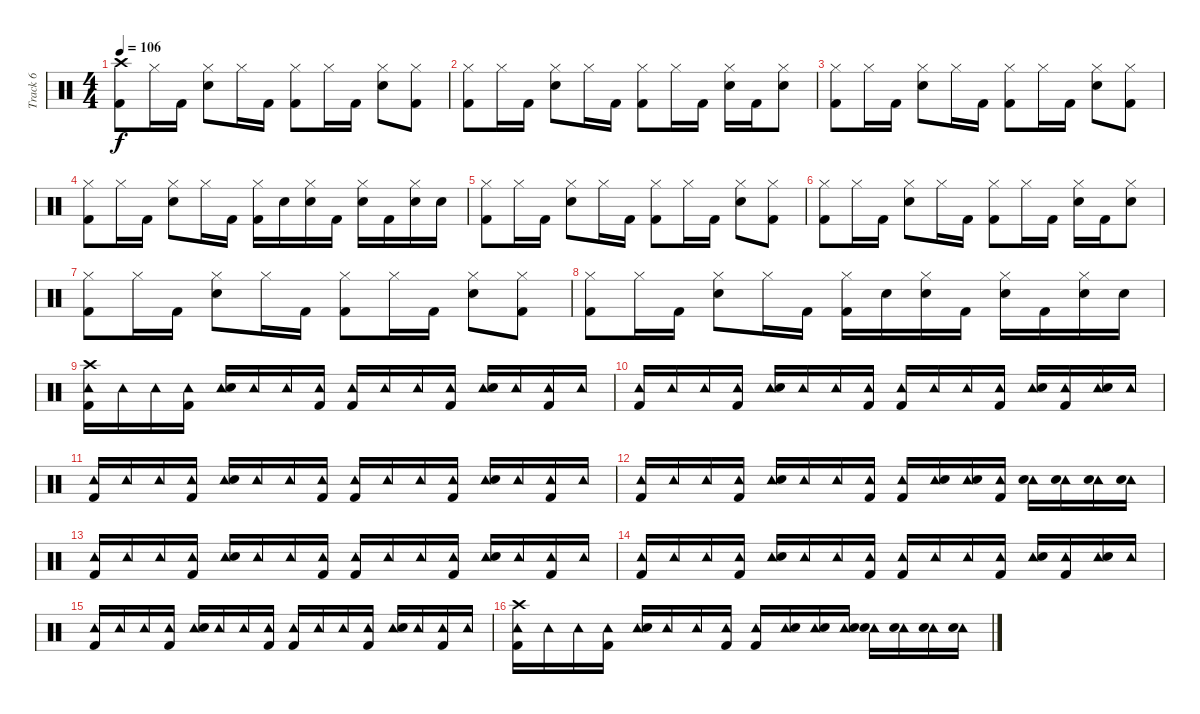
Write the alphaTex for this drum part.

\track ("Track 6" "Track 6") {instrument percussion}
\staff {score}
\articulation defaults
\ts (4 4)
\tempo 106
\clef neutral
\ks c
("Crash high (hit)" "Kick (hit) 2").8{dy f} "Hi-Hat (closed)".16 "Kick (hit) 2".16 ("Hi-Hat (closed)" "Snare (hit) 2").8 "Hi-Hat (closed)".16 "Kick (hit) 2".16 ("Hi-Hat (closed)" "Kick (hit) 2").8 "Hi-Hat (closed)".16 "Kick (hit) 2".16 ("Hi-Hat (closed)" "Snare (hit) 2").8 ("Hi-Hat (closed)" "Kick (hit) 2").8 |
("Hi-Hat (closed)" "Kick (hit) 2").8 "Hi-Hat (closed)".16 "Kick (hit) 2".16 ("Hi-Hat (closed)" "Snare (hit) 2").8 "Hi-Hat (closed)".16 "Kick (hit) 2".16 ("Hi-Hat (closed)" "Kick (hit) 2").8 "Hi-Hat (closed)".16 "Kick (hit) 2".16 ("Hi-Hat (closed)" "Snare (hit) 2").16 "Kick (hit) 2".16 ("Hi-Hat (closed)" "Snare (hit) 2").8 |
("Hi-Hat (closed)" "Kick (hit) 2").8 "Hi-Hat (closed)".16 "Kick (hit) 2".16 ("Hi-Hat (closed)" "Snare (hit) 2").8 "Hi-Hat (closed)".16 "Kick (hit) 2".16 ("Hi-Hat (closed)" "Kick (hit) 2").8 "Hi-Hat (closed)".16 "Kick (hit) 2".16 ("Hi-Hat (closed)" "Snare (hit) 2").8 ("Hi-Hat (closed)" "Kick (hit) 2").8 |
("Hi-Hat (closed)" "Kick (hit) 2").8 "Hi-Hat (closed)".16 "Kick (hit) 2".16 ("Hi-Hat (closed)" "Snare (hit) 2").8 "Hi-Hat (closed)".16 "Kick (hit) 2".16 ("Hi-Hat (closed)" "Kick (hit) 2").16 "Snare (hit) 2".16 ("Hi-Hat (closed)" "Snare (hit) 2").16 "Kick (hit) 2".16 ("Hi-Hat (closed)" "Snare (hit) 2").16 "Kick (hit) 2".16 ("Hi-Hat (closed)" "Snare (hit) 2").16 "Snare (hit) 2".16 |
("Hi-Hat (closed)" "Kick (hit) 2").8 "Hi-Hat (closed)".16 "Kick (hit) 2".16 ("Hi-Hat (closed)" "Snare (hit) 2").8 "Hi-Hat (closed)".16 "Kick (hit) 2".16 ("Hi-Hat (closed)" "Kick (hit) 2").8 "Hi-Hat (closed)".16 "Kick (hit) 2".16 ("Hi-Hat (closed)" "Snare (hit) 2").8 ("Hi-Hat (closed)" "Kick (hit) 2").8 |
("Hi-Hat (closed)" "Kick (hit) 2").8 "Hi-Hat (closed)".16 "Kick (hit) 2".16 ("Hi-Hat (closed)" "Snare (hit) 2").8 "Hi-Hat (closed)".16 "Kick (hit) 2".16 ("Hi-Hat (closed)" "Kick (hit) 2").8 "Hi-Hat (closed)".16 "Kick (hit) 2".16 ("Hi-Hat (closed)" "Snare (hit) 2").16 "Kick (hit) 2".16 ("Hi-Hat (closed)" "Snare (hit) 2").8 |
("Hi-Hat (closed)" "Kick (hit) 2").8 "Hi-Hat (closed)".16 "Kick (hit) 2".16 ("Hi-Hat (closed)" "Snare (hit) 2").8 "Hi-Hat (closed)".16 "Kick (hit) 2".16 ("Hi-Hat (closed)" "Kick (hit) 2").8 "Hi-Hat (closed)".16 "Kick (hit) 2".16 ("Hi-Hat (closed)" "Snare (hit) 2").8 ("Hi-Hat (closed)" "Kick (hit) 2").8 |
("Hi-Hat (closed)" "Kick (hit) 2").8 "Hi-Hat (closed)".16 "Kick (hit) 2".16 ("Hi-Hat (closed)" "Snare (hit) 2").8 "Hi-Hat (closed)".16 "Kick (hit) 2".16 ("Hi-Hat (closed)" "Kick (hit) 2").16 "Snare (hit) 2".16 ("Hi-Hat (closed)" "Snare (hit) 2").16 "Kick (hit) 2".16 ("Hi-Hat (closed)" "Snare (hit) 2").16 "Kick (hit) 2".16 ("Hi-Hat (closed)" "Snare (hit) 2").16 "Snare (hit) 2".16 |
("Tambourine (hit)" "Crash high (hit)" "Kick (hit) 2").16 "Tambourine (hit)".16 "Tambourine (hit)".16 ("Tambourine (hit)" "Kick (hit) 2").16 ("Tambourine (hit)" "Snare (hit) 2").16 "Tambourine (hit)".16 "Tambourine (hit)".16 ("Tambourine (hit)" "Kick (hit) 2").16 ("Tambourine (hit)" "Kick (hit) 2").16 "Tambourine (hit)".16 "Tambourine (hit)".16 ("Tambourine (hit)" "Kick (hit) 2").16 ("Tambourine (hit)" "Snare (hit) 2").16 "Tambourine (hit)".16 ("Tambourine (hit)" "Kick (hit) 2").16 "Tambourine (hit)".16 |
("Tambourine (hit)" "Kick (hit) 2").16 "Tambourine (hit)".16 "Tambourine (hit)".16 ("Tambourine (hit)" "Kick (hit) 2").16 ("Tambourine (hit)" "Snare (hit) 2").16 "Tambourine (hit)".16 "Tambourine (hit)".16 ("Tambourine (hit)" "Kick (hit) 2").16 ("Tambourine (hit)" "Kick (hit) 2").16 "Tambourine (hit)".16 "Tambourine (hit)".16 ("Tambourine (hit)" "Kick (hit) 2").16 ("Tambourine (hit)" "Snare (hit) 2").16 ("Tambourine (hit)" "Kick (hit) 2").16 ("Tambourine (hit)" "Snare (hit) 2").16 "Tambourine (hit)".16 |
("Tambourine (hit)" "Kick (hit) 2").16 "Tambourine (hit)".16 "Tambourine (hit)".16 ("Tambourine (hit)" "Kick (hit) 2").16 ("Tambourine (hit)" "Snare (hit) 2").16 "Tambourine (hit)".16 "Tambourine (hit)".16 ("Tambourine (hit)" "Kick (hit) 2").16 ("Tambourine (hit)" "Kick (hit) 2").16 "Tambourine (hit)".16 "Tambourine (hit)".16 ("Tambourine (hit)" "Kick (hit) 2").16 ("Tambourine (hit)" "Snare (hit) 2").16 "Tambourine (hit)".16 ("Tambourine (hit)" "Kick (hit) 2").16 "Tambourine (hit)".16 |
("Tambourine (hit)" "Kick (hit) 2").16 "Tambourine (hit)".16 "Tambourine (hit)".16 ("Tambourine (hit)" "Kick (hit) 2").16 ("Tambourine (hit)" "Snare (hit) 2").16 "Tambourine (hit)".16 "Tambourine (hit)".16 ("Tambourine (hit)" "Kick (hit) 2").16 ("Tambourine (hit)" "Kick (hit) 2").16 ("Tambourine (hit)" "Snare (hit) 2").16 ("Tambourine (hit)" "Snare (hit) 2").16 ("Tambourine (hit)" "Kick (hit) 2").16 ("Tambourine (hit)" "Snare (hit) 2").16 ("Tambourine (hit)" "Snare (hit) 2").16 ("Tambourine (hit)" "Snare (hit) 2").16 ("Tambourine (hit)" "Snare (hit) 2").16 |
("Tambourine (hit)" "Kick (hit) 2").16 "Tambourine (hit)".16 "Tambourine (hit)".16 ("Tambourine (hit)" "Kick (hit) 2").16 ("Tambourine (hit)" "Snare (hit) 2").16 "Tambourine (hit)".16 "Tambourine (hit)".16 ("Tambourine (hit)" "Kick (hit) 2").16 ("Tambourine (hit)" "Kick (hit) 2").16 "Tambourine (hit)".16 "Tambourine (hit)".16 ("Tambourine (hit)" "Kick (hit) 2").16 ("Tambourine (hit)" "Snare (hit) 2").16 "Tambourine (hit)".16 ("Tambourine (hit)" "Kick (hit) 2").16 "Tambourine (hit)".16 |
("Tambourine (hit)" "Kick (hit) 2").16 "Tambourine (hit)".16 "Tambourine (hit)".16 ("Tambourine (hit)" "Kick (hit) 2").16 ("Tambourine (hit)" "Snare (hit) 2").16 "Tambourine (hit)".16 "Tambourine (hit)".16 ("Tambourine (hit)" "Kick (hit) 2").16 ("Tambourine (hit)" "Kick (hit) 2").16 "Tambourine (hit)".16 "Tambourine (hit)".16 ("Tambourine (hit)" "Kick (hit) 2").16 ("Tambourine (hit)" "Snare (hit) 2").16 ("Tambourine (hit)" "Kick (hit) 2").16 ("Tambourine (hit)" "Snare (hit) 2").16 "Tambourine (hit)".16 |
("Tambourine (hit)" "Kick (hit) 2").16 "Tambourine (hit)".16 "Tambourine (hit)".16 ("Tambourine (hit)" "Kick (hit) 2").16 ("Tambourine (hit)" "Snare (hit) 2").16 "Tambourine (hit)".16 "Tambourine (hit)".16 ("Tambourine (hit)" "Kick (hit) 2").16 ("Tambourine (hit)" "Kick (hit) 2").16 "Tambourine (hit)".16 "Tambourine (hit)".16 ("Tambourine (hit)" "Kick (hit) 2").16 ("Tambourine (hit)" "Snare (hit) 2").16 "Tambourine (hit)".16 ("Tambourine (hit)" "Kick (hit) 2").16 "Tambourine (hit)".16 |
("Tambourine (hit)" "Crash high (hit)" "Kick (hit) 2").16 "Tambourine (hit)".16 "Tambourine (hit)".16 ("Tambourine (hit)" "Kick (hit) 2").16 ("Tambourine (hit)" "Snare (hit) 2").16 "Tambourine (hit)".16 "Tambourine (hit)".16 ("Tambourine (hit)" "Kick (hit) 2").16 ("Tambourine (hit)" "Kick (hit) 2").16 ("Tambourine (hit)" "Snare (hit) 2").16 ("Tambourine (hit)" "Snare (hit) 2").16 ("Tambourine (hit)" "Snare (hit) 2").16 ("Tambourine (hit)" "Snare (hit) 2").16 ("Tambourine (hit)" "Snare (hit) 2").16 ("Tambourine (hit)" "Snare (hit) 2").16 ("Tambourine (hit)" "Snare (hit) 2").16
